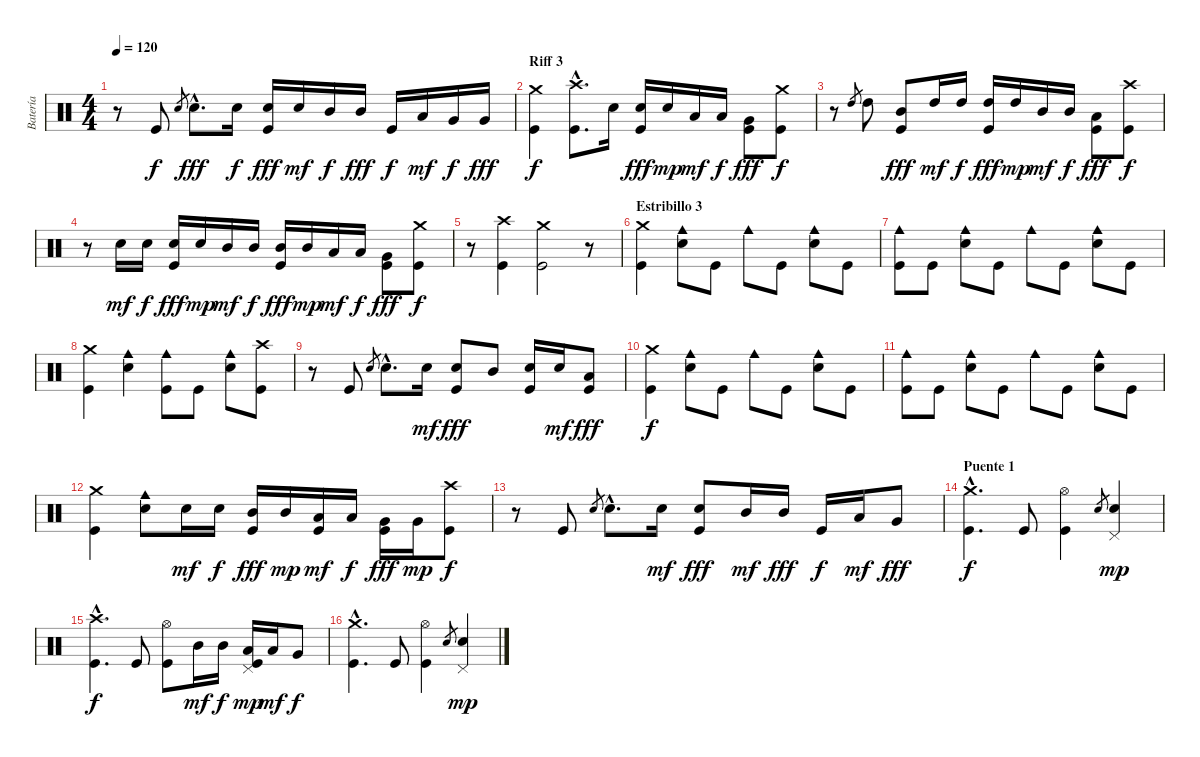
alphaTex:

\track ("Batería" "Batería") {instrument percussion}
\staff {score}
\articulation defaults
\ts (4 4)
\tempo 120
\clef neutral
\ks c
r.8{dy f} "Kick (hit)".8 "Electric Snare (hit)".8{gr} "Electric Snare (hit)"{hac}.8{d dy fff} "Electric Snare (hit)".16{dy f} ("Kick (hit)" "Electric Snare (hit)").16{dy fff} "Electric Snare (hit)".16{dy mf} "Mid Tom (hit)".16{dy f} "Mid Tom (hit)".16{dy fff} "Kick (hit)".16{dy f} "Low Tom (hit)".16{dy mf} "Very Low Tom (hit)".16{dy f} "Very Low Tom (hit)".16{dy fff} |
\section ("" "Riff 3")
("Kick (hit)" "Crash medium (hit)").4{dy f} ("Kick (hit)"{hac} "Crash high (hit)"{hac}).8{d} "Electric Snare (hit)".16 ("Kick (hit)" "Electric Snare (hit)").16{dy fff} "Electric Snare (hit)".16{dy mp} "Low Tom (hit)".16{dy mf} "Low Tom (hit)".16{dy f} ("Kick (hit)" "Very Low Tom (hit)").8{dy fff} ("Kick (hit)" "Crash medium (hit)").8{dy f} |
r.8 "High Tom (hit)".8{gr} "High Tom (hit)".8 ("Kick (hit)" "Mid Tom (hit)").8{dy fff} "High Tom (hit)".16{dy mf} "High Tom (hit)".16{dy f} ("Kick (hit)" "High Tom (hit)").16{dy fff} "High Tom (hit)".16{dy mp} "Mid Tom (hit)".16{dy mf} "Mid Tom (hit)".16{dy f} ("Kick (hit)" "Low Tom (hit)").8{dy fff} ("Kick (hit)" "Crash high (hit)").8{dy f} |
r.8 "Electric Snare (hit)".16{dy mf} "Electric Snare (hit)".16{dy f} ("Kick (hit)" "Electric Snare (hit)").16{dy fff} "Electric Snare (hit)".16{dy mp} "Mid Tom (hit)".16{dy mf} "Mid Tom (hit)".16{dy f} ("Kick (hit)" "Mid Tom (hit)").16{dy fff} "Mid Tom (hit)".16{dy mp} "Low Tom (hit)".16{dy mf} "Low Tom (hit)".16{dy f} ("Kick (hit)" "Very Low Tom (hit)").8{dy fff} ("Kick (hit)" "Crash medium (hit)").8{dy f} |
r.8 ("Kick (hit)" "Crash high (hit)").4 ("Kick (hit)" "Crash medium (hit)").2 r.8 |
\section ("" "Estribillo 3")
("Kick (hit)" "Crash medium (hit)").4 ("Electric Snare (hit)" "Cowbell medium (hit)").8 "Kick (hit)".8 "Cowbell medium (hit)".8 "Kick (hit)".8 ("Electric Snare (hit)" "Cowbell medium (hit)").8 "Kick (hit)".8 |
("Kick (hit)" "Cowbell medium (hit)").8 "Kick (hit)".8 ("Electric Snare (hit)" "Cowbell medium (hit)").8 "Kick (hit)".8 "Cowbell medium (hit)".8 "Kick (hit)".8 ("Electric Snare (hit)" "Cowbell medium (hit)").8 "Kick (hit)".8 |
("Kick (hit)" "Crash medium (hit)").4 ("Electric Snare (hit)" "Cowbell medium (hit)").4 ("Kick (hit)" "Cowbell medium (hit)").8 "Kick (hit)".8 ("Electric Snare (hit)" "Cowbell medium (hit)").8 ("Kick (hit)" "Crash high (hit)").8 |
r.8 "Kick (hit)".8 "Electric Snare (hit)".8{gr} "Electric Snare (hit)"{hac}.8{d} "Electric Snare (hit)".16{dy mf} ("Kick (hit)" "Electric Snare (hit)").8{dy fff} "Mid Tom (hit)".8 ("Kick (hit)" "Electric Snare (hit)").16 "Electric Snare (hit)".16{dy mf} ("Kick (hit)" "Low Tom (hit)").8{dy fff} |
("Kick (hit)" "Crash medium (hit)").4{dy f} ("Electric Snare (hit)" "Cowbell medium (hit)").8 "Kick (hit)".8 "Cowbell medium (hit)".8 "Kick (hit)".8 ("Electric Snare (hit)" "Cowbell medium (hit)").8 "Kick (hit)".8 |
("Kick (hit)" "Cowbell medium (hit)").8 "Kick (hit)".8 ("Electric Snare (hit)" "Cowbell medium (hit)").8 "Kick (hit)".8 "Cowbell medium (hit)".8 "Kick (hit)".8 ("Electric Snare (hit)" "Cowbell medium (hit)").8 "Kick (hit)".8 |
("Kick (hit)" "Crash medium (hit)").4 ("Electric Snare (hit)" "Cowbell medium (hit)").8 "Electric Snare (hit)".16{dy mf} "Electric Snare (hit)".16{dy f} ("Kick (hit)" "Mid Tom (hit)").16{dy fff} "Mid Tom (hit)".16{dy mp} ("Kick (hit)" "Low Tom (hit)").16{dy mf} "Low Tom (hit)".16{dy f} ("Kick (hit)" "Very Low Tom (hit)").16{dy fff} "Very Low Tom (hit)".16{dy mp} ("Kick (hit)" "Crash high (hit)").8{dy f} |
r.8 "Kick (hit)".8 "Electric Snare (hit)".8{gr} "Electric Snare (hit)"{hac}.8{d} "Electric Snare (hit)".16{dy mf} ("Kick (hit)" "Electric Snare (hit)").8{dy fff} "Mid Tom (hit)".16{dy mf} "Mid Tom (hit)".16{dy fff} "Kick (hit)".16{dy f} "Low Tom (hit)".16{dy mf} "Very Low Tom (hit)".8{dy fff} |
\section ("" "Puente 1")
("Kick (hit)"{hac} "Crash medium (hit)"{hac}).4{d dy f} "Kick (hit)".8 ("Kick (hit)" "Hi-Hat (open)").4 "Electric Snare (hit)".8{gr} ("Electric Snare (hit)" "Pedal Hi-Hat (hit)").4{dy mp} |
("Kick (hit)"{hac} "Crash high (hit)"{hac}).4{d dy f} "Kick (hit)".8 ("Kick (hit)" "Hi-Hat (open)").8 "Mid Tom (hit)".16{dy mf} "Mid Tom (hit)".16{dy f} ("Kick (hit)" "Low Tom (hit)" "Pedal Hi-Hat (hit)").16{dy mp} "Low Tom (hit)".16{dy mf} "Very Low Tom (hit)".8{dy f} |
("Kick (hit)"{hac} "Crash medium (hit)"{hac}).4{d} "Kick (hit)".8 ("Kick (hit)" "Hi-Hat (open)").4 "Electric Snare (hit)".8{gr} ("Electric Snare (hit)" "Pedal Hi-Hat (hit)").4{dy mp}
